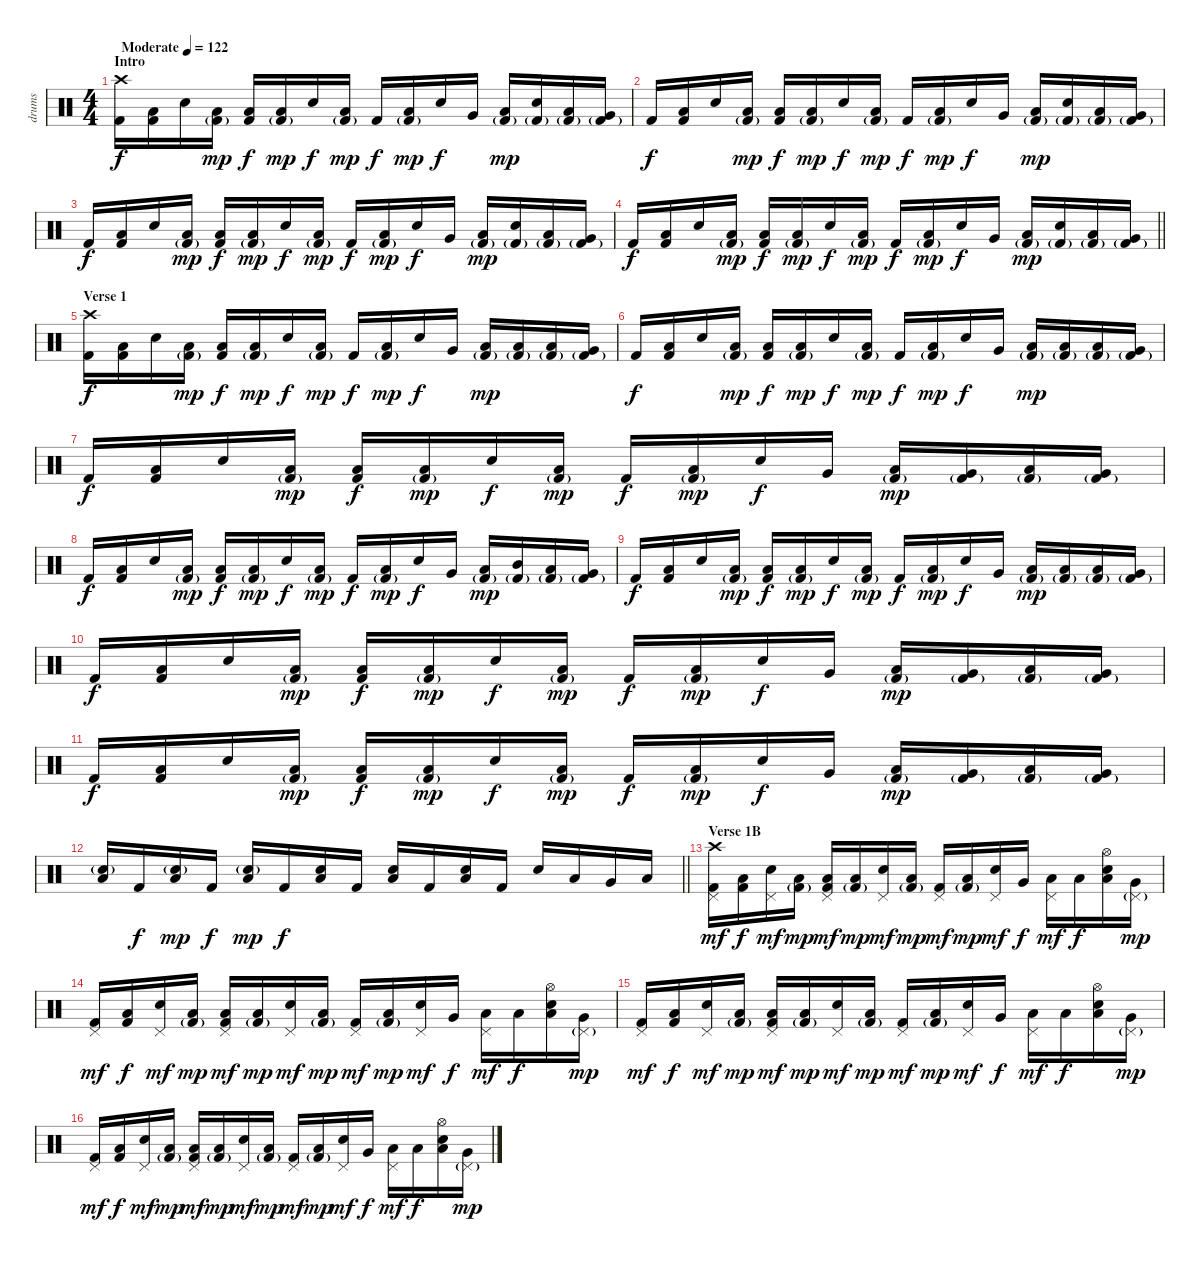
\track ("drums" "drums") {instrument percussion}
\staff {score}
\articulation defaults
\ts (4 4)
\section ("" "Intro ")
\tempo (122 "Moderate")
\clef neutral
\ks c
("Crash high (hit)" "Kick (hit) 2").16{dy f} ("Low Floor Tom (hit)" "Kick (hit) 2").16 "Snare (hit) 2".16 ("Low Floor Tom (hit)" "Kick (hit) 2"{g}).16{bd 60 dy mp} ("Kick (hit) 2" "Low Floor Tom (hit)").16{dy f} ("Low Floor Tom (hit)" "Kick (hit) 2"{g}).16{bd 60 dy mp} "Snare (hit) 2".16{dy f} ("Low Floor Tom (hit)" "Kick (hit) 2"{g}).16{bu 60 dy mp} "Kick (hit) 2".16{dy f} ("Low Floor Tom (hit)" "Kick (hit) 2"{g}).16{bd 60 dy mp} "Snare (hit) 2".16{dy f} "Very Low Tom (hit)".16 ("Low Floor Tom (hit)" "Kick (hit) 2"{g}).16{bd 60 dy mp} ("Snare (hit) 2" "Kick (hit) 2"{g}).16{bu 60} ("Low Floor Tom (hit)" "Kick (hit) 2"{g}).16{bd 60} ("Very Low Tom (hit)" "Kick (hit) 2"{g}).16{bd 60} |
"Kick (hit) 2".16{dy f} ("Low Floor Tom (hit)" "Kick (hit) 2").16 "Snare (hit) 2".16 ("Low Floor Tom (hit)" "Kick (hit) 2"{g}).16{bd 60 dy mp} ("Kick (hit) 2" "Low Floor Tom (hit)").16{dy f} ("Low Floor Tom (hit)" "Kick (hit) 2"{g}).16{bd 60 dy mp} "Snare (hit) 2".16{dy f} ("Low Floor Tom (hit)" "Kick (hit) 2"{g}).16{bu 60 dy mp} "Kick (hit) 2".16{dy f} ("Low Floor Tom (hit)" "Kick (hit) 2"{g}).16{bd 60 dy mp} "Snare (hit) 2".16{dy f} "Very Low Tom (hit)".16 ("Low Floor Tom (hit)" "Kick (hit) 2"{g}).16{bd 60 dy mp} ("Snare (hit) 2" "Kick (hit) 2"{g}).16{bu 60} ("Low Floor Tom (hit)" "Kick (hit) 2"{g}).16{bd 60} ("Very Low Tom (hit)" "Kick (hit) 2"{g}).16{bd 60} |
"Kick (hit) 2".16{dy f} ("Low Floor Tom (hit)" "Kick (hit) 2").16 "Snare (hit) 2".16 ("Low Floor Tom (hit)" "Kick (hit) 2"{g}).16{bd 60 dy mp} ("Kick (hit) 2" "Low Floor Tom (hit)").16{dy f} ("Low Floor Tom (hit)" "Kick (hit) 2"{g}).16{bd 60 dy mp} "Snare (hit) 2".16{dy f} ("Low Floor Tom (hit)" "Kick (hit) 2"{g}).16{bu 60 dy mp} "Kick (hit) 2".16{dy f} ("Low Floor Tom (hit)" "Kick (hit) 2"{g}).16{bd 60 dy mp} "Snare (hit) 2".16{dy f} "Very Low Tom (hit)".16 ("Low Floor Tom (hit)" "Kick (hit) 2"{g}).16{bd 60 dy mp} ("Snare (hit) 2" "Kick (hit) 2"{g}).16{bu 60} ("Low Floor Tom (hit)" "Kick (hit) 2"{g}).16{bd 60} ("Very Low Tom (hit)" "Kick (hit) 2"{g}).16{bd 60} |
\barLineRight lightlight "Kick (hit) 2".16{dy f}
("Low Floor Tom (hit)" "Kick (hit) 2").16 "Snare (hit) 2".16 ("Low Floor Tom (hit)" "Kick (hit) 2"{g}).16{bd 60 dy mp} ("Kick (hit) 2" "Low Floor Tom (hit)").16{dy f} ("Low Floor Tom (hit)" "Kick (hit) 2"{g}).16{bd 60 dy mp} "Snare (hit) 2".16{dy f} ("Low Floor Tom (hit)" "Kick (hit) 2"{g}).16{bu 60 dy mp} "Kick (hit) 2".16{dy f} ("Low Floor Tom (hit)" "Kick (hit) 2"{g}).16{bd 60 dy mp} "Snare (hit) 2".16{dy f} "Very Low Tom (hit)".16 ("Low Floor Tom (hit)" "Kick (hit) 2"{g}).16{bd 60 dy mp} ("Snare (hit) 2" "Kick (hit) 2"{g}).16{bu 60} ("Low Floor Tom (hit)" "Kick (hit) 2"{g}).16{bd 60} ("Very Low Tom (hit)" "Kick (hit) 2"{g}).16{bd 60} |
\section ("" "Verse 1")
("Crash high (hit)" "Kick (hit) 2").16{dy f} ("Low Floor Tom (hit)" "Kick (hit) 2").16 "Snare (hit) 2".16 ("Low Floor Tom (hit)" "Kick (hit) 2"{g}).16{bd 60 dy mp} ("Kick (hit) 2" "Low Floor Tom (hit)").16{dy f} ("Low Floor Tom (hit)" "Kick (hit) 2"{g}).16{bd 60 dy mp} "Snare (hit) 2".16{dy f} ("Low Floor Tom (hit)" "Kick (hit) 2"{g}).16{bu 60 dy mp} "Kick (hit) 2".16{dy f} ("Low Floor Tom (hit)" "Kick (hit) 2"{g}).16{bd 60 dy mp} "Snare (hit) 2".16{dy f} "Very Low Tom (hit)".16 ("Low Floor Tom (hit)" "Kick (hit) 2"{g}).16{bd 60 dy mp} ("Low Tom (hit)" "Kick (hit) 2"{g}).16{bu 60} ("Low Floor Tom (hit)" "Kick (hit) 2"{g}).16{bd 60} ("Very Low Tom (hit)" "Kick (hit) 2"{g}).16{bd 60} |
"Kick (hit) 2".16{dy f} ("Low Floor Tom (hit)" "Kick (hit) 2").16 "Snare (hit) 2".16 ("Low Floor Tom (hit)" "Kick (hit) 2"{g}).16{bd 60 dy mp} ("Kick (hit) 2" "Low Floor Tom (hit)").16{dy f} ("Low Floor Tom (hit)" "Kick (hit) 2"{g}).16{bd 60 dy mp} "Snare (hit) 2".16{dy f} ("Low Floor Tom (hit)" "Kick (hit) 2"{g}).16{bu 60 dy mp} "Kick (hit) 2".16{dy f} ("Low Floor Tom (hit)" "Kick (hit) 2"{g}).16{bd 60 dy mp} "Snare (hit) 2".16{dy f} "Very Low Tom (hit)".16 ("Low Floor Tom (hit)" "Kick (hit) 2"{g}).16{bd 60 dy mp} ("Low Tom (hit)" "Kick (hit) 2"{g}).16{bu 60} ("Low Floor Tom (hit)" "Kick (hit) 2"{g}).16{bd 60} ("Very Low Tom (hit)" "Kick (hit) 2"{g}).16{bd 60} |
"Kick (hit) 2".16{dy f} ("Low Floor Tom (hit)" "Kick (hit) 2").16 "Snare (hit) 2".16 ("Low Floor Tom (hit)" "Kick (hit) 2"{g}).16{bd 60 dy mp} ("Kick (hit) 2" "Low Floor Tom (hit)").16{dy f} ("Low Floor Tom (hit)" "Kick (hit) 2"{g}).16{bd 60 dy mp} "Snare (hit) 2".16{dy f} ("Low Floor Tom (hit)" "Kick (hit) 2"{g}).16{bu 60 dy mp} "Kick (hit) 2".16{dy f} ("Low Floor Tom (hit)" "Kick (hit) 2"{g}).16{bd 60 dy mp} "Snare (hit) 2".16{dy f} "Very Low Tom (hit)".16 ("Low Floor Tom (hit)" "Kick (hit) 2"{g}).16{bd 60 dy mp} ("Very Low Tom (hit)" "Kick (hit) 2"{g}).16{bu 60} ("Low Floor Tom (hit)" "Kick (hit) 2"{g}).16{bd 60} ("Very Low Tom (hit)" "Kick (hit) 2"{g}).16{bd 60} |
"Kick (hit) 2".16{dy f} ("Low Floor Tom (hit)" "Kick (hit) 2").16 "Snare (hit) 2".16 ("Low Floor Tom (hit)" "Kick (hit) 2"{g}).16{bd 60 dy mp} ("Kick (hit) 2" "Low Floor Tom (hit)").16{dy f} ("Low Floor Tom (hit)" "Kick (hit) 2"{g}).16{bd 60 dy mp} "Snare (hit) 2".16{dy f} ("Low Floor Tom (hit)" "Kick (hit) 2"{g}).16{bu 60 dy mp} "Kick (hit) 2".16{dy f} ("Low Floor Tom (hit)" "Kick (hit) 2"{g}).16{bd 60 dy mp} "Snare (hit) 2".16{dy f} "Very Low Tom (hit)".16 ("Low Floor Tom (hit)" "Kick (hit) 2"{g}).16{bd 60 dy mp} ("Mid Tom (hit)" "Kick (hit) 2"{g}).16{bu 60} ("Low Floor Tom (hit)" "Kick (hit) 2"{g}).16{bd 60} ("Very Low Tom (hit)" "Kick (hit) 2"{g}).16{bd 60} |
"Kick (hit) 2".16{dy f} ("Low Floor Tom (hit)" "Kick (hit) 2").16 "Snare (hit) 2".16 ("Low Floor Tom (hit)" "Kick (hit) 2"{g}).16{bd 60 dy mp} ("Kick (hit) 2" "Low Floor Tom (hit)").16{dy f} ("Low Floor Tom (hit)" "Kick (hit) 2"{g}).16{bd 60 dy mp} "Snare (hit) 2".16{dy f} ("Low Floor Tom (hit)" "Kick (hit) 2"{g}).16{bu 60 dy mp} "Kick (hit) 2".16{dy f} ("Low Floor Tom (hit)" "Kick (hit) 2"{g}).16{bd 60 dy mp} "Snare (hit) 2".16{dy f} "Very Low Tom (hit)".16 ("Low Floor Tom (hit)" "Kick (hit) 2"{g}).16{bd 60 dy mp} ("Low Tom (hit)" "Kick (hit) 2"{g}).16{bu 60} ("Low Floor Tom (hit)" "Kick (hit) 2"{g}).16{bd 60} ("Very Low Tom (hit)" "Kick (hit) 2"{g}).16{bd 60} |
"Kick (hit) 2".16{dy f} ("Low Floor Tom (hit)" "Kick (hit) 2").16 "Snare (hit) 2".16 ("Low Floor Tom (hit)" "Kick (hit) 2"{g}).16{bd 60 dy mp} ("Kick (hit) 2" "Low Floor Tom (hit)").16{dy f} ("Low Floor Tom (hit)" "Kick (hit) 2"{g}).16{bd 60 dy mp} "Snare (hit) 2".16{dy f} ("Low Floor Tom (hit)" "Kick (hit) 2"{g}).16{bu 60 dy mp} "Kick (hit) 2".16{dy f} ("Low Floor Tom (hit)" "Kick (hit) 2"{g}).16{bd 60 dy mp} "Snare (hit) 2".16{dy f} "Very Low Tom (hit)".16 ("Low Floor Tom (hit)" "Kick (hit) 2"{g}).16{bd 60 dy mp} ("Very Low Tom (hit)" "Kick (hit) 2"{g}).16{bu 60} ("Low Floor Tom (hit)" "Kick (hit) 2"{g}).16{bd 60} ("Very Low Tom (hit)" "Kick (hit) 2"{g}).16{bd 60} |
"Kick (hit) 2".16{dy f} ("Low Floor Tom (hit)" "Kick (hit) 2").16 "Snare (hit) 2".16 ("Low Floor Tom (hit)" "Kick (hit) 2"{g}).16{bd 60 dy mp} ("Kick (hit) 2" "Low Floor Tom (hit)").16{dy f} ("Low Floor Tom (hit)" "Kick (hit) 2"{g}).16{bd 60 dy mp} "Snare (hit) 2".16{dy f} ("Low Floor Tom (hit)" "Kick (hit) 2"{g}).16{bu 60 dy mp} "Kick (hit) 2".16{dy f} ("Low Floor Tom (hit)" "Kick (hit) 2"{g}).16{bd 60 dy mp} "Snare (hit) 2".16{dy f} "Very Low Tom (hit)".16 ("Low Floor Tom (hit)" "Kick (hit) 2"{g}).16{bd 60 dy mp} ("Very Low Tom (hit)" "Kick (hit) 2"{g}).16{bu 60} ("Low Floor Tom (hit)" "Kick (hit) 2"{g}).16{bd 60} ("Very Low Tom (hit)" "Kick (hit) 2"{g}).16{bd 60} |
\barLineRight lightlight
("Low Floor Tom (hit)" "Snare (hit) 2"{g}).16 "Kick (hit) 2".16{dy f} ("Low Floor Tom (hit)" "Snare (hit) 2"{g}).16{dy mp} "Kick (hit) 2".16{dy f} ("Low Floor Tom (hit)" "Snare (hit) 2"{g}).16{dy mp} "Kick (hit) 2".16{dy f} ("Low Floor Tom (hit)" "Snare (hit) 2").16 "Kick (hit) 2".16 ("Low Floor Tom (hit)" "Snare (hit) 2").16 "Kick (hit) 2".16 ("Low Floor Tom (hit)" "Snare (hit) 2").16 "Kick (hit) 2".16 "Snare (hit) 2".16 "Low Floor Tom (hit)".16 "Very Low Tom (hit)".16 "Low Floor Tom (hit)".16 |
\section ("" "Verse 1B")
("Kick (hit) 2" "Crash high (hit)" "Pedal Hi-Hat (hit)").16{dy mf} ("Low Floor Tom (hit)" "Kick (hit) 2").16{dy f} ("Snare (hit) 2" "Pedal Hi-Hat (hit)").16{dy mf} ("Low Floor Tom (hit)" "Kick (hit) 2"{g}).16{bd 60 dy mp} ("Kick (hit) 2" "Low Floor Tom (hit)" "Pedal Hi-Hat (hit)").16{dy mf} ("Low Floor Tom (hit)" "Kick (hit) 2"{g}).16{bd 60 dy mp} ("Snare (hit) 2" "Pedal Hi-Hat (hit)").16{dy mf} ("Low Floor Tom (hit)" "Kick (hit) 2"{g}).16{bu 60 dy mp} ("Kick (hit) 2" "Pedal Hi-Hat (hit)").16{dy mf} ("Low Floor Tom (hit)" "Kick (hit) 2"{g}).16{bd 60 dy mp} ("Snare (hit) 2" "Pedal Hi-Hat (hit)").16{dy mf} "Very Low Tom (hit)".16{dy f} ("Low Floor Tom (hit)" "Pedal Hi-Hat (hit)").16{bd 60 dy mf} "Low Tom (hit)".16{bu 60 dy f} ("Snare (hit) 2" "Low Floor Tom (hit)" "Hi-Hat (open)").16{bd 60} ("Very Low Tom (hit)" "Pedal Hi-Hat (hit)"{g}).16{bd 60 dy mp} |
("Kick (hit) 2" "Pedal Hi-Hat (hit)").16{dy mf} ("Low Floor Tom (hit)" "Kick (hit) 2").16{dy f} ("Snare (hit) 2" "Pedal Hi-Hat (hit)").16{dy mf} ("Low Floor Tom (hit)" "Kick (hit) 2"{g}).16{bd 60 dy mp} ("Kick (hit) 2" "Low Floor Tom (hit)" "Pedal Hi-Hat (hit)").16{dy mf} ("Low Floor Tom (hit)" "Kick (hit) 2"{g}).16{bd 60 dy mp} ("Snare (hit) 2" "Pedal Hi-Hat (hit)").16{dy mf} ("Low Floor Tom (hit)" "Kick (hit) 2"{g}).16{bu 60 dy mp} ("Kick (hit) 2" "Pedal Hi-Hat (hit)").16{dy mf} ("Low Floor Tom (hit)" "Kick (hit) 2"{g}).16{bd 60 dy mp} ("Snare (hit) 2" "Pedal Hi-Hat (hit)").16{dy mf} "Very Low Tom (hit)".16{dy f} ("Low Floor Tom (hit)" "Pedal Hi-Hat (hit)").16{bd 60 dy mf} "Low Tom (hit)".16{bu 60 dy f} ("Snare (hit) 2" "Low Floor Tom (hit)" "Hi-Hat (open)").16{bd 60} ("Very Low Tom (hit)" "Pedal Hi-Hat (hit)"{g}).16{bd 60 dy mp} |
("Kick (hit) 2" "Pedal Hi-Hat (hit)").16{dy mf} ("Low Floor Tom (hit)" "Kick (hit) 2").16{dy f} ("Snare (hit) 2" "Pedal Hi-Hat (hit)").16{dy mf} ("Low Floor Tom (hit)" "Kick (hit) 2"{g}).16{bd 60 dy mp} ("Kick (hit) 2" "Low Floor Tom (hit)" "Pedal Hi-Hat (hit)").16{dy mf} ("Low Floor Tom (hit)" "Kick (hit) 2"{g}).16{bd 60 dy mp} ("Snare (hit) 2" "Pedal Hi-Hat (hit)").16{dy mf} ("Low Floor Tom (hit)" "Kick (hit) 2"{g}).16{bu 60 dy mp} ("Kick (hit) 2" "Pedal Hi-Hat (hit)").16{dy mf} ("Low Floor Tom (hit)" "Kick (hit) 2"{g}).16{bd 60 dy mp} ("Snare (hit) 2" "Pedal Hi-Hat (hit)").16{dy mf} "Very Low Tom (hit)".16{dy f} ("Low Floor Tom (hit)" "Pedal Hi-Hat (hit)").16{bd 60 dy mf} "Low Tom (hit)".16{bu 60 dy f} ("Snare (hit) 2" "Low Floor Tom (hit)" "Hi-Hat (open)").16{bd 60} ("Very Low Tom (hit)" "Pedal Hi-Hat (hit)"{g}).16{bd 60 dy mp} |
("Kick (hit) 2" "Pedal Hi-Hat (hit)").16{dy mf} ("Low Floor Tom (hit)" "Kick (hit) 2").16{dy f} ("Snare (hit) 2" "Pedal Hi-Hat (hit)").16{dy mf} ("Low Floor Tom (hit)" "Kick (hit) 2"{g}).16{bd 60 dy mp} ("Kick (hit) 2" "Low Floor Tom (hit)" "Pedal Hi-Hat (hit)").16{dy mf} ("Low Floor Tom (hit)" "Kick (hit) 2"{g}).16{bd 60 dy mp} ("Snare (hit) 2" "Pedal Hi-Hat (hit)").16{dy mf} ("Low Floor Tom (hit)" "Kick (hit) 2"{g}).16{bu 60 dy mp} ("Kick (hit) 2" "Pedal Hi-Hat (hit)").16{dy mf} ("Low Floor Tom (hit)" "Kick (hit) 2"{g}).16{bd 60 dy mp} ("Snare (hit) 2" "Pedal Hi-Hat (hit)").16{dy mf} "Very Low Tom (hit)".16{dy f} ("Low Floor Tom (hit)" "Pedal Hi-Hat (hit)").16{bd 60 dy mf} "Low Tom (hit)".16{bu 60 dy f} ("Snare (hit) 2" "Low Floor Tom (hit)" "Hi-Hat (open)").16{bd 60} ("Very Low Tom (hit)" "Pedal Hi-Hat (hit)"{g}).16{bd 60 dy mp}
